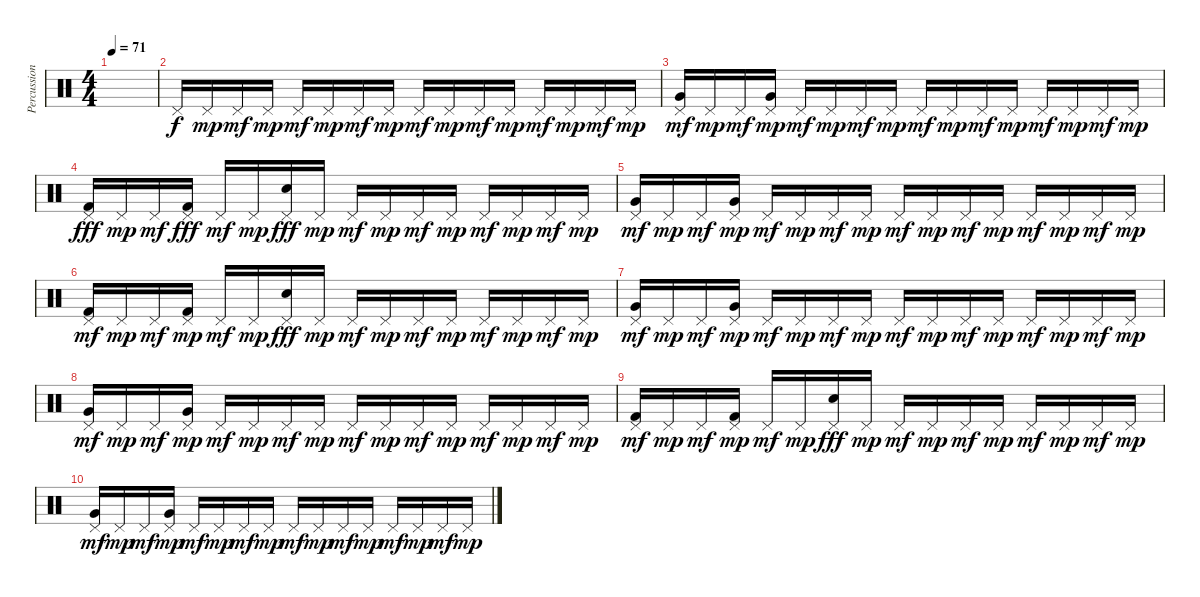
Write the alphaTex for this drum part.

\track ("Percussioni" "Percussion") {instrument percussion}
\staff {score}
\articulation defaults
\ts (4 4)
\tempo 71
\clef neutral
\ks c
|
"Pedal Hi-Hat (hit)".16 "Pedal Hi-Hat (hit)".16{dy mp} "Pedal Hi-Hat (hit)".16{dy mf} "Pedal Hi-Hat (hit)".16{dy mp} "Pedal Hi-Hat (hit)".16{dy mf} "Pedal Hi-Hat (hit)".16{dy mp} "Pedal Hi-Hat (hit)".16{dy mf} "Pedal Hi-Hat (hit)".16{dy mp} "Pedal Hi-Hat (hit)".16{dy mf} "Pedal Hi-Hat (hit)".16{dy mp} "Pedal Hi-Hat (hit)".16{dy mf} "Pedal Hi-Hat (hit)".16{dy mp} "Pedal Hi-Hat (hit)".16{dy mf} "Pedal Hi-Hat (hit)".16{dy mp} "Pedal Hi-Hat (hit)".16{dy mf} "Pedal Hi-Hat (hit)".16{dy mp} |
("Pedal Hi-Hat (hit)" "Very Low Tom (hit)").16{dy mf} "Pedal Hi-Hat (hit)".16{dy mp} "Pedal Hi-Hat (hit)".16{dy mf} ("Pedal Hi-Hat (hit)" "Very Low Tom (hit)").16{dy mp} "Pedal Hi-Hat (hit)".16{dy mf} "Pedal Hi-Hat (hit)".16{dy mp} "Pedal Hi-Hat (hit)".16{dy mf} "Pedal Hi-Hat (hit)".16{dy mp} "Pedal Hi-Hat (hit)".16{dy mf} "Pedal Hi-Hat (hit)".16{dy mp} "Pedal Hi-Hat (hit)".16{dy mf} "Pedal Hi-Hat (hit)".16{dy mp} "Pedal Hi-Hat (hit)".16{dy mf} "Pedal Hi-Hat (hit)".16{dy mp} "Pedal Hi-Hat (hit)".16{dy mf} "Pedal Hi-Hat (hit)".16{dy mp} |
("Pedal Hi-Hat (hit)" "Kick (hit) 2").16{dy fff} "Pedal Hi-Hat (hit)".16{dy mp} "Pedal Hi-Hat (hit)".16{dy mf} ("Pedal Hi-Hat (hit)" "Kick (hit) 2").16{dy fff} "Pedal Hi-Hat (hit)".16{dy mf} "Pedal Hi-Hat (hit)".16{dy mp} ("Pedal Hi-Hat (hit)" "Snare (hit) 2").16{dy fff} "Pedal Hi-Hat (hit)".16{dy mp} "Pedal Hi-Hat (hit)".16{dy mf} "Pedal Hi-Hat (hit)".16{dy mp} "Pedal Hi-Hat (hit)".16{dy mf} "Pedal Hi-Hat (hit)".16{dy mp} "Pedal Hi-Hat (hit)".16{dy mf} "Pedal Hi-Hat (hit)".16{dy mp} "Pedal Hi-Hat (hit)".16{dy mf} "Pedal Hi-Hat (hit)".16{dy mp} |
("Pedal Hi-Hat (hit)" "Very Low Tom (hit)").16{dy mf} "Pedal Hi-Hat (hit)".16{dy mp} "Pedal Hi-Hat (hit)".16{dy mf} ("Pedal Hi-Hat (hit)" "Very Low Tom (hit)").16{dy mp} "Pedal Hi-Hat (hit)".16{dy mf} "Pedal Hi-Hat (hit)".16{dy mp} "Pedal Hi-Hat (hit)".16{dy mf} "Pedal Hi-Hat (hit)".16{dy mp} "Pedal Hi-Hat (hit)".16{dy mf} "Pedal Hi-Hat (hit)".16{dy mp} "Pedal Hi-Hat (hit)".16{dy mf} "Pedal Hi-Hat (hit)".16{dy mp} "Pedal Hi-Hat (hit)".16{dy mf} "Pedal Hi-Hat (hit)".16{dy mp} "Pedal Hi-Hat (hit)".16{dy mf} "Pedal Hi-Hat (hit)".16{dy mp} |
("Pedal Hi-Hat (hit)" "Kick (hit) 2").16{dy mf} "Pedal Hi-Hat (hit)".16{dy mp} "Pedal Hi-Hat (hit)".16{dy mf} ("Pedal Hi-Hat (hit)" "Kick (hit) 2").16{dy mp} "Pedal Hi-Hat (hit)".16{dy mf} "Pedal Hi-Hat (hit)".16{dy mp} ("Pedal Hi-Hat (hit)" "Snare (hit) 2").16{dy fff} "Pedal Hi-Hat (hit)".16{dy mp} "Pedal Hi-Hat (hit)".16{dy mf} "Pedal Hi-Hat (hit)".16{dy mp} "Pedal Hi-Hat (hit)".16{dy mf} "Pedal Hi-Hat (hit)".16{dy mp} "Pedal Hi-Hat (hit)".16{dy mf} "Pedal Hi-Hat (hit)".16{dy mp} "Pedal Hi-Hat (hit)".16{dy mf} "Pedal Hi-Hat (hit)".16{dy mp} |
("Pedal Hi-Hat (hit)" "Very Low Tom (hit)").16{dy mf} "Pedal Hi-Hat (hit)".16{dy mp} "Pedal Hi-Hat (hit)".16{dy mf} ("Pedal Hi-Hat (hit)" "Very Low Tom (hit)").16{dy mp} "Pedal Hi-Hat (hit)".16{dy mf} "Pedal Hi-Hat (hit)".16{dy mp} "Pedal Hi-Hat (hit)".16{dy mf} "Pedal Hi-Hat (hit)".16{dy mp} "Pedal Hi-Hat (hit)".16{dy mf} "Pedal Hi-Hat (hit)".16{dy mp} "Pedal Hi-Hat (hit)".16{dy mf} "Pedal Hi-Hat (hit)".16{dy mp} "Pedal Hi-Hat (hit)".16{dy mf} "Pedal Hi-Hat (hit)".16{dy mp} "Pedal Hi-Hat (hit)".16{dy mf} "Pedal Hi-Hat (hit)".16{dy mp} |
("Pedal Hi-Hat (hit)" "Very Low Tom (hit)").16{dy mf} "Pedal Hi-Hat (hit)".16{dy mp} "Pedal Hi-Hat (hit)".16{dy mf} ("Pedal Hi-Hat (hit)" "Very Low Tom (hit)").16{dy mp} "Pedal Hi-Hat (hit)".16{dy mf} "Pedal Hi-Hat (hit)".16{dy mp} "Pedal Hi-Hat (hit)".16{dy mf} "Pedal Hi-Hat (hit)".16{dy mp} "Pedal Hi-Hat (hit)".16{dy mf} "Pedal Hi-Hat (hit)".16{dy mp} "Pedal Hi-Hat (hit)".16{dy mf} "Pedal Hi-Hat (hit)".16{dy mp} "Pedal Hi-Hat (hit)".16{dy mf} "Pedal Hi-Hat (hit)".16{dy mp} "Pedal Hi-Hat (hit)".16{dy mf} "Pedal Hi-Hat (hit)".16{dy mp} |
("Pedal Hi-Hat (hit)" "Kick (hit) 2").16{dy mf} "Pedal Hi-Hat (hit)".16{dy mp} "Pedal Hi-Hat (hit)".16{dy mf} ("Pedal Hi-Hat (hit)" "Kick (hit) 2").16{dy mp} "Pedal Hi-Hat (hit)".16{dy mf} "Pedal Hi-Hat (hit)".16{dy mp} ("Pedal Hi-Hat (hit)" "Snare (hit) 2").16{dy fff} "Pedal Hi-Hat (hit)".16{dy mp} "Pedal Hi-Hat (hit)".16{dy mf} "Pedal Hi-Hat (hit)".16{dy mp} "Pedal Hi-Hat (hit)".16{dy mf} "Pedal Hi-Hat (hit)".16{dy mp} "Pedal Hi-Hat (hit)".16{dy mf} "Pedal Hi-Hat (hit)".16{dy mp} "Pedal Hi-Hat (hit)".16{dy mf} "Pedal Hi-Hat (hit)".16{dy mp} |
("Pedal Hi-Hat (hit)" "Very Low Tom (hit)").16{dy mf} "Pedal Hi-Hat (hit)".16{dy mp} "Pedal Hi-Hat (hit)".16{dy mf} ("Pedal Hi-Hat (hit)" "Very Low Tom (hit)").16{dy mp} "Pedal Hi-Hat (hit)".16{dy mf} "Pedal Hi-Hat (hit)".16{dy mp} "Pedal Hi-Hat (hit)".16{dy mf} "Pedal Hi-Hat (hit)".16{dy mp} "Pedal Hi-Hat (hit)".16{dy mf} "Pedal Hi-Hat (hit)".16{dy mp} "Pedal Hi-Hat (hit)".16{dy mf} "Pedal Hi-Hat (hit)".16{dy mp} "Pedal Hi-Hat (hit)".16{dy mf} "Pedal Hi-Hat (hit)".16{dy mp} "Pedal Hi-Hat (hit)".16{dy mf} "Pedal Hi-Hat (hit)".16{dy mp}
